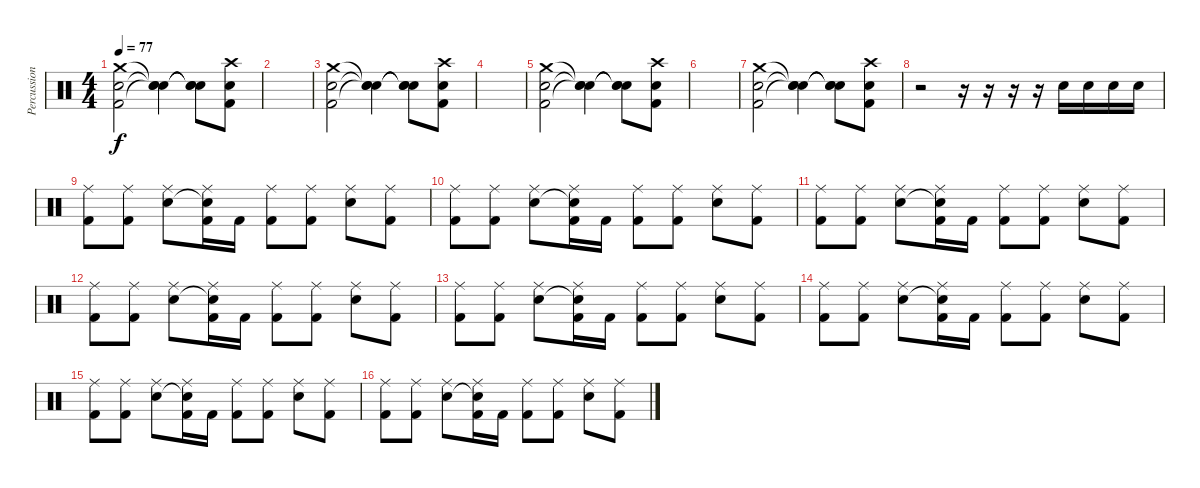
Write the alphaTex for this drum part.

\track ("Percussion" "Percussion") {instrument percussion}
\staff {score}
\articulation defaults
\ts (4 4)
\tempo 77
\clef neutral
\ks c
("Crash medium (hit)" "Electric Snare (hit)" "Kick (hit) 2").2{dy f} ("Snare (hit)"{t} "Snare (hit)"{t} "Snare (hit)"{t}).4 ("Snare (hit)"{t} "Snare (hit)"{t} "Snare (hit)"{t}).8 ("Crash high (hit)" "Electric Snare (hit)" "Kick (hit) 2").8 |
|
("Crash medium (hit)" "Electric Snare (hit)" "Kick (hit) 2").2 ("Snare (hit)"{t} "Snare (hit)"{t} "Snare (hit)"{t}).4 ("Snare (hit)"{t} "Snare (hit)"{t} "Snare (hit)"{t}).8 ("Crash high (hit)" "Electric Snare (hit)" "Kick (hit) 2").8 |
|
("Crash medium (hit)" "Electric Snare (hit)" "Kick (hit) 2").2 ("Snare (hit)"{t} "Snare (hit)"{t} "Snare (hit)"{t}).4 ("Snare (hit)"{t} "Snare (hit)"{t} "Snare (hit)"{t}).8 ("Crash high (hit)" "Electric Snare (hit)" "Kick (hit) 2").8 |
|
("Crash medium (hit)" "Electric Snare (hit)" "Kick (hit) 2").2 ("Snare (hit)"{t} "Snare (hit)"{t} "Snare (hit)"{t}).4 ("Snare (hit)"{t} "Snare (hit)"{t} "Snare (hit)"{t}).8 ("Crash high (hit)" "Electric Snare (hit)" "Kick (hit) 2").8 |
r.2 r.16 r.16 r.16 r.16 "Electric Snare (hit)".16 "Electric Snare (hit)".16 "Electric Snare (hit)".16 "Electric Snare (hit)".16 |
("Ride (middle)" "Kick (hit) 2").8 ("Ride (middle)" "Kick (hit) 2").8 ("Ride (middle)" "Electric Snare (hit)").8 ("Ride (middle)" "Snare (hit)"{t} "Kick (hit) 2").16 "Kick (hit) 2".16 ("Ride (middle)" "Kick (hit) 2").8 ("Ride (middle)" "Kick (hit) 2").8 ("Ride (middle)" "Electric Snare (hit)").8 ("Ride (middle)" "Kick (hit) 2").8 |
("Ride (middle)" "Kick (hit) 2").8 ("Ride (middle)" "Kick (hit) 2").8 ("Ride (middle)" "Electric Snare (hit)").8 ("Ride (middle)" "Snare (hit)"{t} "Kick (hit) 2").16 "Kick (hit) 2".16 ("Ride (middle)" "Kick (hit) 2").8 ("Ride (middle)" "Kick (hit) 2").8 ("Ride (middle)" "Electric Snare (hit)").8 ("Ride (middle)" "Kick (hit) 2").8 |
("Ride (middle)" "Kick (hit) 2").8 ("Ride (middle)" "Kick (hit) 2").8 ("Ride (middle)" "Electric Snare (hit)").8 ("Ride (middle)" "Snare (hit)"{t} "Kick (hit) 2").16 "Kick (hit) 2".16 ("Ride (middle)" "Kick (hit) 2").8 ("Ride (middle)" "Kick (hit) 2").8 ("Ride (middle)" "Electric Snare (hit)").8 ("Ride (middle)" "Kick (hit) 2").8 |
("Ride (middle)" "Kick (hit) 2").8 ("Ride (middle)" "Kick (hit) 2").8 ("Ride (middle)" "Electric Snare (hit)").8 ("Ride (middle)" "Snare (hit)"{t} "Kick (hit) 2").16 "Kick (hit) 2".16 ("Ride (middle)" "Kick (hit) 2").8 ("Ride (middle)" "Kick (hit) 2").8 ("Ride (middle)" "Electric Snare (hit)").8 ("Ride (middle)" "Kick (hit) 2").8 |
("Ride (middle)" "Kick (hit) 2").8 ("Ride (middle)" "Kick (hit) 2").8 ("Ride (middle)" "Electric Snare (hit)").8 ("Ride (middle)" "Snare (hit)"{t} "Kick (hit) 2").16 "Kick (hit) 2".16 ("Ride (middle)" "Kick (hit) 2").8 ("Ride (middle)" "Kick (hit) 2").8 ("Ride (middle)" "Electric Snare (hit)").8 ("Ride (middle)" "Kick (hit) 2").8 |
("Ride (middle)" "Kick (hit) 2").8 ("Ride (middle)" "Kick (hit) 2").8 ("Ride (middle)" "Electric Snare (hit)").8 ("Ride (middle)" "Snare (hit)"{t} "Kick (hit) 2").16 "Kick (hit) 2".16 ("Ride (middle)" "Kick (hit) 2").8 ("Ride (middle)" "Kick (hit) 2").8 ("Ride (middle)" "Electric Snare (hit)").8 ("Ride (middle)" "Kick (hit) 2").8 |
("Ride (middle)" "Kick (hit) 2").8 ("Ride (middle)" "Kick (hit) 2").8 ("Ride (middle)" "Electric Snare (hit)").8 ("Ride (middle)" "Snare (hit)"{t} "Kick (hit) 2").16 "Kick (hit) 2".16 ("Ride (middle)" "Kick (hit) 2").8 ("Ride (middle)" "Kick (hit) 2").8 ("Ride (middle)" "Electric Snare (hit)").8 ("Ride (middle)" "Kick (hit) 2").8 |
("Ride (middle)" "Kick (hit) 2").8 ("Ride (middle)" "Kick (hit) 2").8 ("Ride (middle)" "Electric Snare (hit)").8 ("Ride (middle)" "Snare (hit)"{t} "Kick (hit) 2").16 "Kick (hit) 2".16 ("Ride (middle)" "Kick (hit) 2").8 ("Ride (middle)" "Kick (hit) 2").8 ("Ride (middle)" "Electric Snare (hit)").8 ("Ride (middle)" "Kick (hit) 2").8
